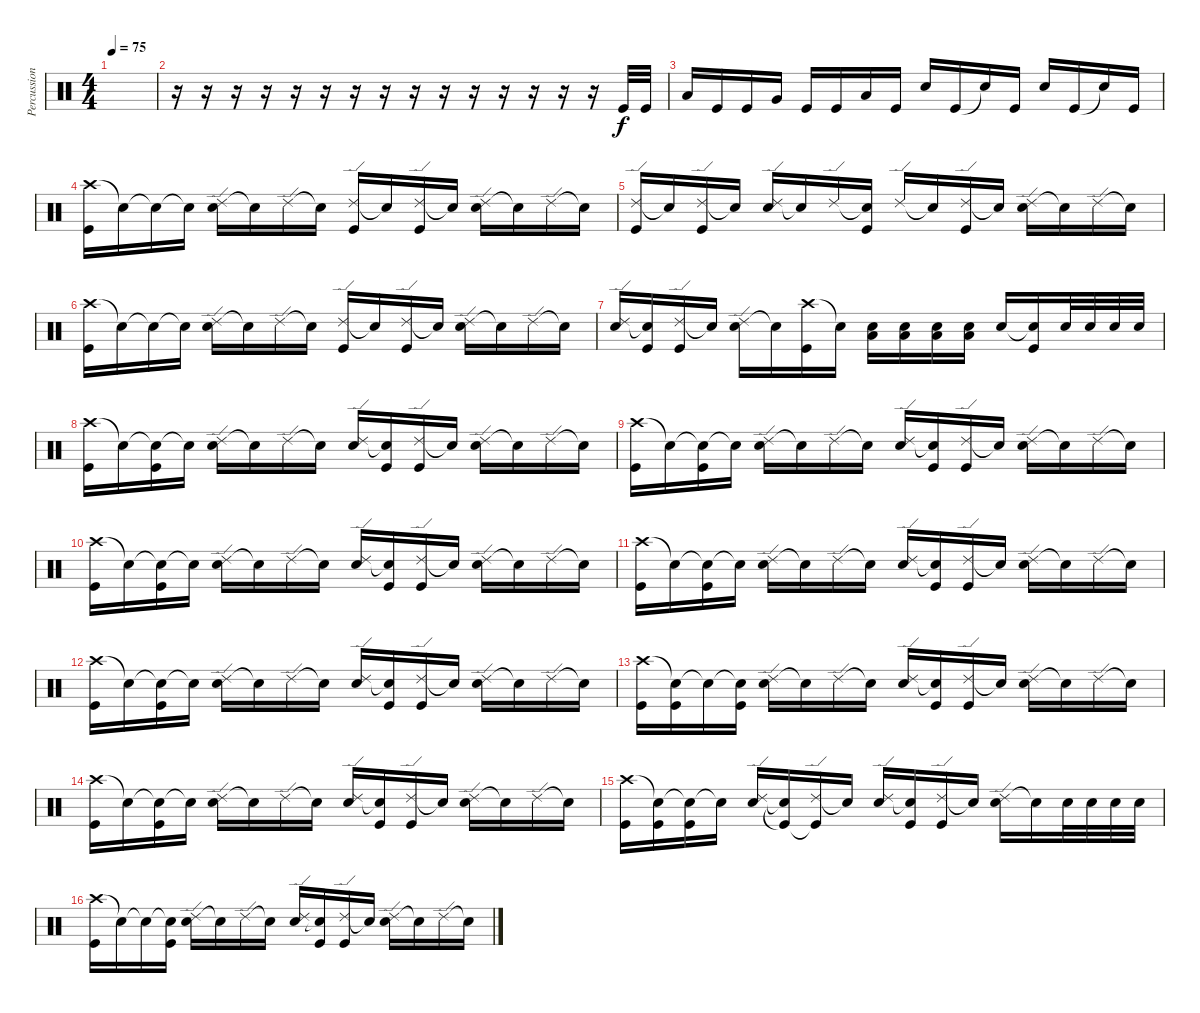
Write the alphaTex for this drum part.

\track ("Percussion" "Percussion") {instrument percussion}
\staff {score}
\articulation defaults
\ts (4 4)
\tempo 75
\clef neutral
\ks c
|
r.16 r.16 r.16 r.16 r.16 r.16 r.16 r.16 r.16 r.16 r.16 r.16 r.16 r.16 r.16 "Kick (hit)".32 "Kick (hit)".32 |
"Low Tom (hit)".16 "Kick (hit)".16 "Kick (hit)".16 "Very Low Tom (hit)".16 "Kick (hit)".16 "Kick (hit)".16 "Low Tom (hit)".16 "Kick (hit)".16 "Electric Snare (hit)".16 "Kick (hit)".16 "Snare (hit)"{t}.16 "Kick (hit)".16 "Electric Snare (hit)".16 "Kick (hit)".16 "Snare (hit)"{t}.16 "Kick (hit)".16 |
("Crash high (hit)" "Kick (hit)").16 "Snare (hit)"{t}.16 "Snare (hit)"{t}.16 "Snare (hit)"{t}.16 ("Ride (edge) 2" "Electric Snare (hit)").16 "Snare (hit)"{t}.16 "Ride (edge) 2".16 "Snare (hit)"{t}.16 ("Ride (edge) 2" "Kick (hit)").16 "Snare (hit)"{t}.16 ("Ride (edge) 2" "Kick (hit)").16 "Snare (hit)"{t}.16 ("Ride (edge) 2" "Electric Snare (hit)").16 "Snare (hit)"{t}.16 "Ride (edge) 2".16 "Snare (hit)"{t}.16 |
("Ride (edge) 2" "Kick (hit)").16 "Snare (hit)"{t}.16 ("Ride (edge) 2" "Kick (hit)").16 "Snare (hit)"{t}.16 ("Ride (edge) 2" "Electric Snare (hit)").16 "Snare (hit)"{t}.16 "Ride (edge) 2".16 ("Snare (hit)"{t} "Kick (hit)").16 "Ride (edge) 2".16 "Snare (hit)"{t}.16 ("Ride (edge) 2" "Kick (hit)").16 "Snare (hit)"{t}.16 ("Ride (edge) 2" "Electric Snare (hit)").16 "Snare (hit)"{t}.16 "Ride (edge) 2".16 "Snare (hit)"{t}.16 |
("Crash high (hit)" "Kick (hit)").16 "Snare (hit)"{t}.16 "Snare (hit)"{t}.16 "Snare (hit)"{t}.16 ("Ride (edge) 2" "Electric Snare (hit)").16 "Snare (hit)"{t}.16 "Ride (edge) 2".16 "Snare (hit)"{t}.16 ("Ride (edge) 2" "Kick (hit)").16 "Snare (hit)"{t}.16 ("Ride (edge) 2" "Kick (hit)").16 "Snare (hit)"{t}.16 ("Ride (edge) 2" "Electric Snare (hit)").16 "Snare (hit)"{t}.16 "Ride (edge) 2".16 "Snare (hit)"{t}.16 |
("Ride (edge) 2" "Electric Snare (hit)").16 ("Snare (hit)"{t} "Kick (hit)").16 ("Ride (edge) 2" "Kick (hit)").16 "Snare (hit)"{t}.16 ("Ride (edge) 2" "Electric Snare (hit)").16 "Snare (hit)"{t}.16 ("Crash high (hit)" "Kick (hit)").16 "Snare (hit)"{t}.16 ("Electric Snare (hit)" "Low Tom (hit)").16 ("Electric Snare (hit)" "Low Tom (hit)").16 ("Electric Snare (hit)" "Low Tom (hit)").16 ("Electric Snare (hit)" "Low Tom (hit)").16 "Electric Snare (hit)".16 ("Snare (hit)"{t} "Kick (hit)").16 "Electric Snare (hit)".32 "Electric Snare (hit)".32 "Electric Snare (hit)".32 "Electric Snare (hit)".32 |
("Crash high (hit)" "Kick (hit)").16 "Snare (hit)"{t}.16 ("Snare (hit)"{t} "Kick (hit)").16 "Snare (hit)"{t}.16 ("Ride (edge) 2" "Electric Snare (hit)").16 "Snare (hit)"{t}.16 "Ride (edge) 2".16 "Snare (hit)"{t}.16 ("Ride (edge) 2" "Electric Snare (hit)").16 ("Snare (hit)"{t} "Kick (hit)").16 ("Ride (edge) 2" "Kick (hit)").16 "Snare (hit)"{t}.16 ("Ride (edge) 2" "Electric Snare (hit)").16 "Snare (hit)"{t}.16 "Ride (edge) 2".16 "Snare (hit)"{t}.16 |
("Crash high (hit)" "Kick (hit)").16 "Snare (hit)"{t}.16 ("Snare (hit)"{t} "Kick (hit)").16 "Snare (hit)"{t}.16 ("Ride (edge) 2" "Electric Snare (hit)").16 "Snare (hit)"{t}.16 "Ride (edge) 2".16 "Snare (hit)"{t}.16 ("Ride (edge) 2" "Electric Snare (hit)").16 ("Snare (hit)"{t} "Kick (hit)").16 ("Ride (edge) 2" "Kick (hit)").16 "Snare (hit)"{t}.16 ("Ride (edge) 2" "Electric Snare (hit)").16 "Snare (hit)"{t}.16 "Ride (edge) 2".16 "Snare (hit)"{t}.16 |
("Crash high (hit)" "Kick (hit)").16 "Snare (hit)"{t}.16 ("Snare (hit)"{t} "Kick (hit)").16 "Snare (hit)"{t}.16 ("Ride (edge) 2" "Electric Snare (hit)").16 "Snare (hit)"{t}.16 "Ride (edge) 2".16 "Snare (hit)"{t}.16 ("Ride (edge) 2" "Electric Snare (hit)").16 ("Snare (hit)"{t} "Kick (hit)").16 ("Ride (edge) 2" "Kick (hit)").16 "Snare (hit)"{t}.16 ("Ride (edge) 2" "Electric Snare (hit)").16 "Snare (hit)"{t}.16 "Ride (edge) 2".16 "Snare (hit)"{t}.16 |
("Crash high (hit)" "Kick (hit)").16 "Snare (hit)"{t}.16 ("Snare (hit)"{t} "Kick (hit)").16 "Snare (hit)"{t}.16 ("Ride (edge) 2" "Electric Snare (hit)").16 "Snare (hit)"{t}.16 "Ride (edge) 2".16 "Snare (hit)"{t}.16 ("Ride (edge) 2" "Electric Snare (hit)").16 ("Snare (hit)"{t} "Kick (hit)").16 ("Ride (edge) 2" "Kick (hit)").16 "Snare (hit)"{t}.16 ("Ride (edge) 2" "Electric Snare (hit)").16 "Snare (hit)"{t}.16 "Ride (edge) 2".16 "Snare (hit)"{t}.16 |
("Crash high (hit)" "Kick (hit)").16 "Snare (hit)"{t}.16 ("Snare (hit)"{t} "Kick (hit)").16 "Snare (hit)"{t}.16 ("Ride (edge) 2" "Electric Snare (hit)").16 "Snare (hit)"{t}.16 "Ride (edge) 2".16 "Snare (hit)"{t}.16 ("Ride (edge) 2" "Electric Snare (hit)").16 ("Snare (hit)"{t} "Kick (hit)").16 ("Ride (edge) 2" "Kick (hit)").16 "Snare (hit)"{t}.16 ("Ride (edge) 2" "Electric Snare (hit)").16 "Snare (hit)"{t}.16 "Ride (edge) 2".16 "Snare (hit)"{t}.16 |
("Crash high (hit)" "Kick (hit)").16 ("Snare (hit)"{t} "Kick (hit)").16 "Snare (hit)"{t}.16 ("Snare (hit)"{t} "Kick (hit)").16 ("Ride (edge) 2" "Electric Snare (hit)").16 "Snare (hit)"{t}.16 "Ride (edge) 2".16 "Snare (hit)"{t}.16 ("Ride (edge) 2" "Electric Snare (hit)").16 ("Snare (hit)"{t} "Kick (hit)").16 ("Ride (edge) 2" "Kick (hit)").16 "Snare (hit)"{t}.16 ("Ride (edge) 2" "Electric Snare (hit)").16 "Snare (hit)"{t}.16 "Ride (edge) 2".16 "Snare (hit)"{t}.16 |
("Crash high (hit)" "Kick (hit)").16 "Snare (hit)"{t}.16 ("Snare (hit)"{t} "Kick (hit)").16 "Snare (hit)"{t}.16 ("Ride (edge) 2" "Electric Snare (hit)").16 "Snare (hit)"{t}.16 "Ride (edge) 2".16 "Snare (hit)"{t}.16 ("Ride (edge) 2" "Electric Snare (hit)").16 ("Snare (hit)"{t} "Kick (hit)").16 ("Ride (edge) 2" "Kick (hit)").16 "Snare (hit)"{t}.16 ("Ride (edge) 2" "Electric Snare (hit)").16 "Snare (hit)"{t}.16 "Ride (edge) 2".16 "Snare (hit)"{t}.16 |
("Crash high (hit)" "Kick (hit)").16 ("Snare (hit)"{t} "Kick (hit)").16 ("Snare (hit)"{t} "Kick (hit)").16 "Snare (hit)"{t}.16 ("Ride (edge) 2" "Electric Snare (hit)").16 ("Snare (hit)"{t} "Kick (hit)"{t}).16 ("Ride (edge) 2" "Kick (hit)"{t}).16 "Snare (hit)"{t}.16 ("Ride (edge) 2" "Electric Snare (hit)").16 ("Snare (hit)"{t} "Kick (hit)").16 ("Ride (edge) 2" "Kick (hit)").16 "Snare (hit)"{t}.16 ("Ride (edge) 2" "Electric Snare (hit)").16 "Snare (hit)"{t}.16 "Electric Snare (hit)".32 "Electric Snare (hit)".32 "Electric Snare (hit)".32 "Electric Snare (hit)".32 |
("Crash high (hit)" "Kick (hit)").16 "Snare (hit)"{t}.16 "Snare (hit)"{t}.16 ("Snare (hit)"{t} "Kick (hit)").16 ("Ride (edge) 2" "Electric Snare (hit)").16 "Snare (hit)"{t}.16 "Ride (edge) 2".16 "Snare (hit)"{t}.16 ("Ride (edge) 2" "Electric Snare (hit)").16 ("Snare (hit)"{t} "Kick (hit)").16 ("Ride (edge) 2" "Kick (hit)").16 "Snare (hit)"{t}.16 ("Ride (edge) 2" "Electric Snare (hit)").16 "Snare (hit)"{t}.16 "Ride (edge) 2".16 "Snare (hit)"{t}.16
